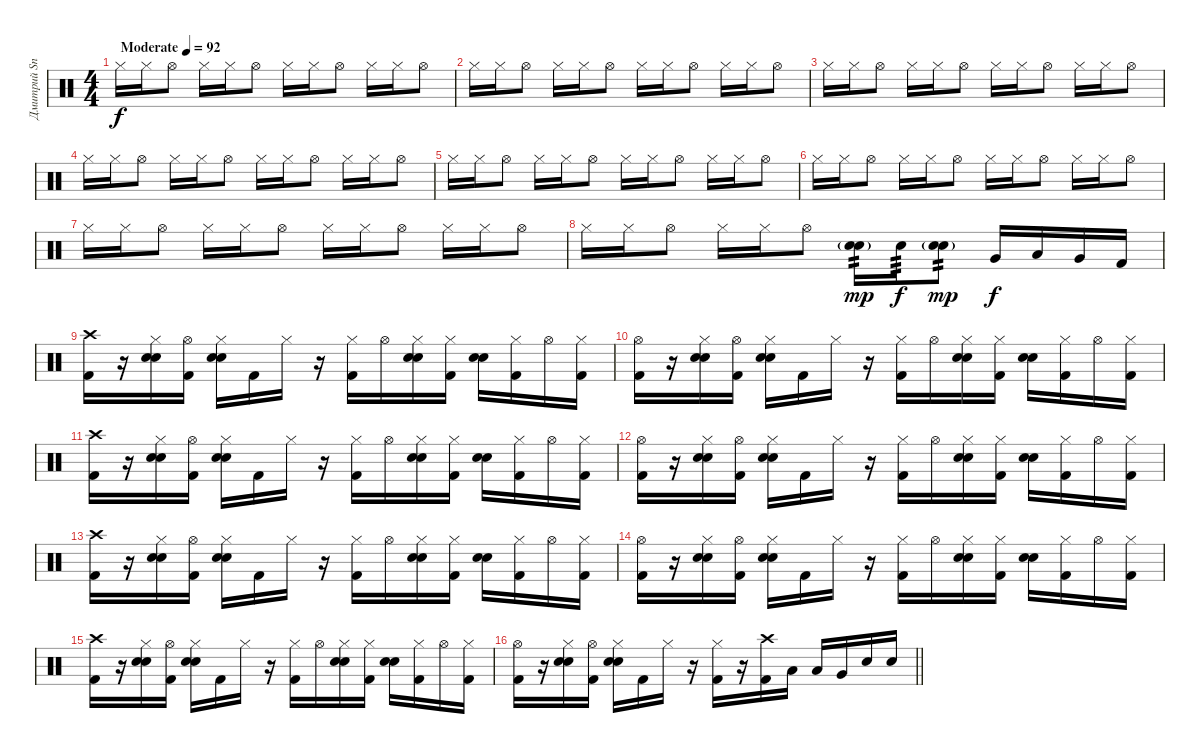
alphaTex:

\track ("Дмитрий Snake Хакимов" "Дмитрий Sn") {instrument percussion}
\staff {score}
\articulation defaults
\ts (4 4)
\tempo (92 "Moderate")
\clef neutral
\ks c "Hi-Hat (closed)".16{dy f} "Hi-Hat (closed)".16 "Hi-Hat (open)".8 "Hi-Hat (closed)".16 "Hi-Hat (closed)".16 "Hi-Hat (open)".8 "Hi-Hat (closed)".16 "Hi-Hat (closed)".16 "Hi-Hat (open)".8 "Hi-Hat (closed)".16 "Hi-Hat (closed)".16 "Hi-Hat (open)".8
|
"Hi-Hat (closed)".16 "Hi-Hat (closed)".16 "Hi-Hat (open)".8 "Hi-Hat (closed)".16 "Hi-Hat (closed)".16 "Hi-Hat (open)".8 "Hi-Hat (closed)".16 "Hi-Hat (closed)".16 "Hi-Hat (open)".8 "Hi-Hat (closed)".16 "Hi-Hat (closed)".16 "Hi-Hat (open)".8 |
"Hi-Hat (closed)".16 "Hi-Hat (closed)".16 "Hi-Hat (open)".8 "Hi-Hat (closed)".16 "Hi-Hat (closed)".16 "Hi-Hat (open)".8 "Hi-Hat (closed)".16 "Hi-Hat (closed)".16 "Hi-Hat (open)".8 "Hi-Hat (closed)".16 "Hi-Hat (closed)".16 "Hi-Hat (open)".8 |
"Hi-Hat (closed)".16 "Hi-Hat (closed)".16 "Hi-Hat (open)".8 "Hi-Hat (closed)".16 "Hi-Hat (closed)".16 "Hi-Hat (open)".8 "Hi-Hat (closed)".16 "Hi-Hat (closed)".16 "Hi-Hat (open)".8 "Hi-Hat (closed)".16 "Hi-Hat (closed)".16 "Hi-Hat (open)".8 |
"Hi-Hat (closed)".16 "Hi-Hat (closed)".16 "Hi-Hat (open)".8 "Hi-Hat (closed)".16 "Hi-Hat (closed)".16 "Hi-Hat (open)".8 "Hi-Hat (closed)".16 "Hi-Hat (closed)".16 "Hi-Hat (open)".8 "Hi-Hat (closed)".16 "Hi-Hat (closed)".16 "Hi-Hat (open)".8 |
"Hi-Hat (closed)".16 "Hi-Hat (closed)".16 "Hi-Hat (open)".8 "Hi-Hat (closed)".16 "Hi-Hat (closed)".16 "Hi-Hat (open)".8 "Hi-Hat (closed)".16 "Hi-Hat (closed)".16 "Hi-Hat (open)".8 "Hi-Hat (closed)".16 "Hi-Hat (closed)".16 "Hi-Hat (open)".8 |
"Hi-Hat (closed)".16 "Hi-Hat (closed)".16 "Hi-Hat (open)".8 "Hi-Hat (closed)".16 "Hi-Hat (closed)".16 "Hi-Hat (open)".8 "Hi-Hat (closed)".16 "Hi-Hat (closed)".16 "Hi-Hat (open)".8 "Hi-Hat (closed)".16 "Hi-Hat (closed)".16 "Hi-Hat (open)".8 |
"Hi-Hat (closed)".16 "Hi-Hat (closed)".16 "Hi-Hat (open)".8 "Hi-Hat (closed)".16 "Hi-Hat (closed)".16 "Hi-Hat (open)".8 ("Snare (hit) 2"{g} "Electric Snare (hit)").16{tp 2 dy mp} "Electric Snare (hit)".16{tp 3 dy f} ("Snare (hit) 2"{g} "Electric Snare (hit)").8{tp 2 dy mp} "Very Low Tom (hit)".16{dy f} "Low Tom (hit)".16 "Very Low Tom (hit)".16 "Kick (hit) 2".16 |
("Crash high (hit)" "Kick (hit) 2").16 r.16 ("Hi-Hat (closed)" "Snare (hit) 2" "Electric Snare (hit)").16 ("Hi-Hat (open)" "Kick (hit) 2").16 ("Hi-Hat (closed)" "Snare (hit) 2" "Electric Snare (hit)").16 "Kick (hit) 2".16 "Hi-Hat (closed)".16 r.16 ("Hi-Hat (closed)" "Kick (hit) 2").16 "Hi-Hat (open)".16 ("Hi-Hat (closed)" "Snare (hit) 2" "Electric Snare (hit)").16 ("Hi-Hat (closed)" "Kick (hit) 2").16 ("Snare (hit) 2" "Electric Snare (hit)").16 ("Hi-Hat (closed)" "Kick (hit) 2").16 "Hi-Hat (open)".16 ("Hi-Hat (closed)" "Kick (hit) 2").16 |
("Hi-Hat (open)" "Kick (hit) 2").16 r.16 ("Hi-Hat (closed)" "Snare (hit) 2" "Electric Snare (hit)").16 ("Hi-Hat (open)" "Kick (hit) 2").16 ("Hi-Hat (closed)" "Snare (hit) 2" "Electric Snare (hit)").16 "Kick (hit) 2".16 "Hi-Hat (closed)".16 r.16 ("Hi-Hat (closed)" "Kick (hit) 2").16 "Hi-Hat (open)".16 ("Hi-Hat (closed)" "Snare (hit) 2" "Electric Snare (hit)").16 ("Hi-Hat (closed)" "Kick (hit) 2").16 ("Snare (hit) 2" "Electric Snare (hit)").16 ("Hi-Hat (closed)" "Kick (hit) 2").16 "Hi-Hat (open)".16 ("Hi-Hat (closed)" "Kick (hit) 2").16 |
("Crash high (hit)" "Kick (hit) 2").16 r.16 ("Hi-Hat (closed)" "Snare (hit) 2" "Electric Snare (hit)").16 ("Hi-Hat (open)" "Kick (hit) 2").16 ("Hi-Hat (closed)" "Snare (hit) 2" "Electric Snare (hit)").16 "Kick (hit) 2".16 "Hi-Hat (closed)".16 r.16 ("Hi-Hat (closed)" "Kick (hit) 2").16 "Hi-Hat (open)".16 ("Hi-Hat (closed)" "Snare (hit) 2" "Electric Snare (hit)").16 ("Hi-Hat (closed)" "Kick (hit) 2").16 ("Snare (hit) 2" "Electric Snare (hit)").16 ("Hi-Hat (closed)" "Kick (hit) 2").16 "Hi-Hat (open)".16 ("Hi-Hat (closed)" "Kick (hit) 2").16 |
("Hi-Hat (open)" "Kick (hit) 2").16 r.16 ("Hi-Hat (closed)" "Snare (hit) 2" "Electric Snare (hit)").16 ("Hi-Hat (open)" "Kick (hit) 2").16 ("Hi-Hat (closed)" "Snare (hit) 2" "Electric Snare (hit)").16 "Kick (hit) 2".16 "Hi-Hat (closed)".16 r.16 ("Hi-Hat (closed)" "Kick (hit) 2").16 "Hi-Hat (open)".16 ("Hi-Hat (closed)" "Snare (hit) 2" "Electric Snare (hit)").16 ("Hi-Hat (closed)" "Kick (hit) 2").16 ("Snare (hit) 2" "Electric Snare (hit)").16 ("Hi-Hat (closed)" "Kick (hit) 2").16 "Hi-Hat (open)".16 ("Hi-Hat (closed)" "Kick (hit) 2").16 |
("Crash high (hit)" "Kick (hit) 2").16 r.16 ("Hi-Hat (closed)" "Snare (hit) 2" "Electric Snare (hit)").16 ("Hi-Hat (open)" "Kick (hit) 2").16 ("Hi-Hat (closed)" "Snare (hit) 2" "Electric Snare (hit)").16 "Kick (hit) 2".16 "Hi-Hat (closed)".16 r.16 ("Hi-Hat (closed)" "Kick (hit) 2").16 "Hi-Hat (open)".16 ("Hi-Hat (closed)" "Snare (hit) 2" "Electric Snare (hit)").16 ("Hi-Hat (closed)" "Kick (hit) 2").16 ("Snare (hit) 2" "Electric Snare (hit)").16 ("Hi-Hat (closed)" "Kick (hit) 2").16 "Hi-Hat (open)".16 ("Hi-Hat (closed)" "Kick (hit) 2").16 |
("Hi-Hat (open)" "Kick (hit) 2").16 r.16 ("Hi-Hat (closed)" "Snare (hit) 2" "Electric Snare (hit)").16 ("Hi-Hat (open)" "Kick (hit) 2").16 ("Hi-Hat (closed)" "Snare (hit) 2" "Electric Snare (hit)").16 "Kick (hit) 2".16 "Hi-Hat (closed)".16 r.16 ("Hi-Hat (closed)" "Kick (hit) 2").16 "Hi-Hat (open)".16 ("Hi-Hat (closed)" "Snare (hit) 2" "Electric Snare (hit)").16 ("Hi-Hat (closed)" "Kick (hit) 2").16 ("Snare (hit) 2" "Electric Snare (hit)").16 ("Hi-Hat (closed)" "Kick (hit) 2").16 "Hi-Hat (open)".16 ("Hi-Hat (closed)" "Kick (hit) 2").16 |
("Crash high (hit)" "Kick (hit) 2").16 r.16 ("Hi-Hat (closed)" "Snare (hit) 2" "Electric Snare (hit)").16 ("Hi-Hat (open)" "Kick (hit) 2").16 ("Hi-Hat (closed)" "Snare (hit) 2" "Electric Snare (hit)").16 "Kick (hit) 2".16 "Hi-Hat (closed)".16 r.16 ("Hi-Hat (closed)" "Kick (hit) 2").16 "Hi-Hat (open)".16 ("Hi-Hat (closed)" "Snare (hit) 2" "Electric Snare (hit)").16 ("Hi-Hat (closed)" "Kick (hit) 2").16 ("Snare (hit) 2" "Electric Snare (hit)").16 ("Hi-Hat (closed)" "Kick (hit) 2").16 "Hi-Hat (open)".16 ("Hi-Hat (closed)" "Kick (hit) 2").16 |
\barLineRight lightlight
("Hi-Hat (open)" "Kick (hit) 2").16 r.16 ("Hi-Hat (closed)" "Snare (hit) 2" "Electric Snare (hit)").16 ("Hi-Hat (open)" "Kick (hit) 2").16 ("Hi-Hat (closed)" "Snare (hit) 2" "Electric Snare (hit)").16 "Kick (hit) 2".16 "Hi-Hat (closed)".16 r.16 ("Hi-Hat (closed)" "Kick (hit) 2").16 r.16 ("Crash high (hit)" "Kick (hit) 2").16 "Low Tom (hit)".16 "Low Tom (hit)".16 "Very Low Tom (hit)".16 "Electric Snare (hit)".16 "Electric Snare (hit)".16
